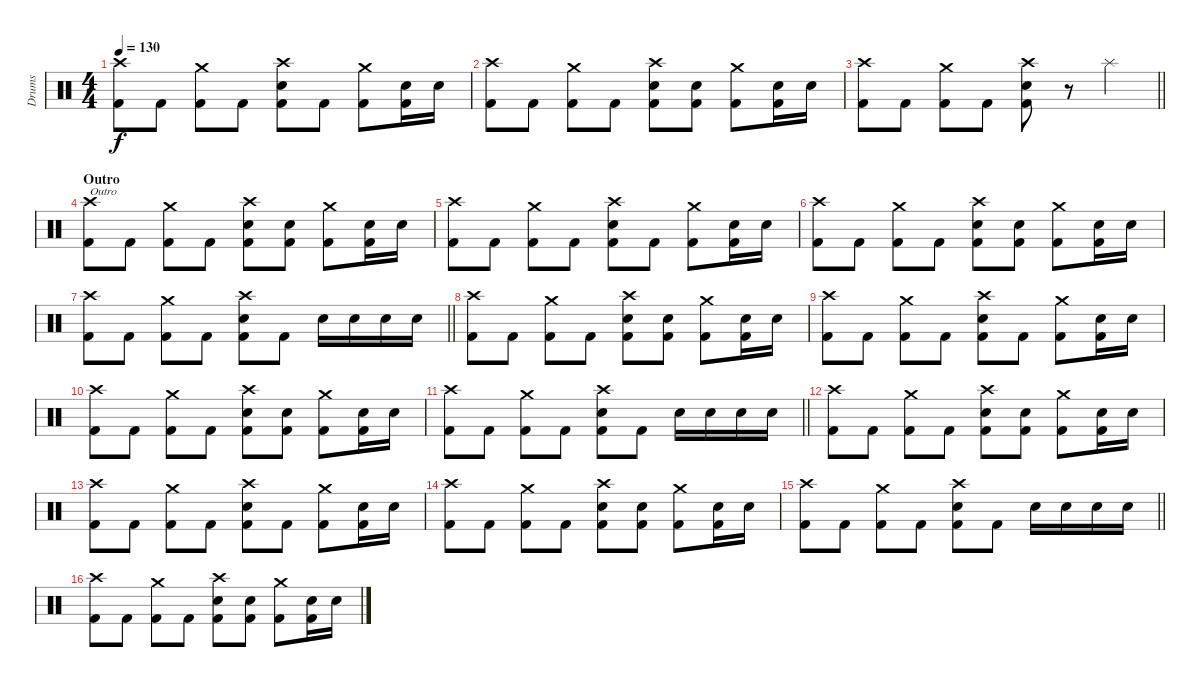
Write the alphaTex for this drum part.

\track ("Drums" "Drums") {instrument percussion}
\staff {score}
\articulation defaults
\ts (4 4)
\tempo 130
\clef neutral
\ks c
("Crash high (hit)" "Kick (hit) 2").8{dy f} "Kick (hit) 2".8 ("Crash medium (hit)" "Kick (hit) 2").8 "Kick (hit) 2".8 ("Crash high (hit)" "Electric Snare (hit)" "Kick (hit) 2").8 "Kick (hit) 2".8 ("Crash medium (hit)" "Kick (hit) 2").8 ("Electric Snare (hit)" "Kick (hit) 2").16 "Electric Snare (hit)".16 |
("Crash high (hit)" "Kick (hit) 2").8 "Kick (hit) 2".8 ("Crash medium (hit)" "Kick (hit) 2").8 "Kick (hit) 2".8 ("Crash high (hit)" "Electric Snare (hit)" "Kick (hit) 2").8 ("Electric Snare (hit)" "Kick (hit) 2").8 ("Crash medium (hit)" "Kick (hit) 2").8 ("Electric Snare (hit)" "Kick (hit) 2").16 "Electric Snare (hit)".16 |
\barLineRight lightlight
("Crash high (hit)" "Kick (hit) 2").8 "Kick (hit) 2".8 ("Crash medium (hit)" "Kick (hit) 2").8 "Kick (hit) 2".8 ("Crash high (hit)" "Electric Snare (hit)" "Kick (hit) 2").8 r.8 "Splash (hit)".4 |
\section ("" "Outro")
("Crash high (hit)" "Kick (hit) 2").8{txt "Outro"} "Kick (hit) 2".8 ("Crash medium (hit)" "Kick (hit) 2").8 "Kick (hit) 2".8 ("Crash high (hit)" "Electric Snare (hit)" "Kick (hit) 2").8 ("Electric Snare (hit)" "Kick (hit) 2").8 ("Crash medium (hit)" "Kick (hit) 2").8 ("Electric Snare (hit)" "Kick (hit) 2").16 "Electric Snare (hit)".16 |
("Crash high (hit)" "Kick (hit) 2").8 "Kick (hit) 2".8 ("Crash medium (hit)" "Kick (hit) 2").8 "Kick (hit) 2".8 ("Crash high (hit)" "Electric Snare (hit)" "Kick (hit) 2").8 "Kick (hit) 2".8 ("Crash medium (hit)" "Kick (hit) 2").8 ("Electric Snare (hit)" "Kick (hit) 2").16 "Electric Snare (hit)".16 |
("Crash high (hit)" "Kick (hit) 2").8 "Kick (hit) 2".8 ("Crash medium (hit)" "Kick (hit) 2").8 "Kick (hit) 2".8 ("Crash high (hit)" "Electric Snare (hit)" "Kick (hit) 2").8 ("Electric Snare (hit)" "Kick (hit) 2").8 ("Crash medium (hit)" "Kick (hit) 2").8 ("Electric Snare (hit)" "Kick (hit) 2").16 "Electric Snare (hit)".16 |
\barLineRight lightlight
("Crash high (hit)" "Kick (hit) 2").8 "Kick (hit) 2".8 ("Crash medium (hit)" "Kick (hit) 2").8 "Kick (hit) 2".8 ("Crash high (hit)" "Electric Snare (hit)" "Kick (hit) 2").8 "Kick (hit) 2".8 "Electric Snare (hit)".16 "Electric Snare (hit)".16 "Electric Snare (hit)".16 "Electric Snare (hit)".16 |
("Crash high (hit)" "Kick (hit) 2").8 "Kick (hit) 2".8 ("Crash medium (hit)" "Kick (hit) 2").8 "Kick (hit) 2".8 ("Crash high (hit)" "Electric Snare (hit)" "Kick (hit) 2").8 ("Electric Snare (hit)" "Kick (hit) 2").8 ("Crash medium (hit)" "Kick (hit) 2").8 ("Electric Snare (hit)" "Kick (hit) 2").16 "Electric Snare (hit)".16 |
("Crash high (hit)" "Kick (hit) 2").8 "Kick (hit) 2".8 ("Crash medium (hit)" "Kick (hit) 2").8 "Kick (hit) 2".8 ("Crash high (hit)" "Electric Snare (hit)" "Kick (hit) 2").8 "Kick (hit) 2".8 ("Crash medium (hit)" "Kick (hit) 2").8 ("Electric Snare (hit)" "Kick (hit) 2").16 "Electric Snare (hit)".16 |
("Crash high (hit)" "Kick (hit) 2").8 "Kick (hit) 2".8 ("Crash medium (hit)" "Kick (hit) 2").8 "Kick (hit) 2".8 ("Crash high (hit)" "Electric Snare (hit)" "Kick (hit) 2").8 ("Electric Snare (hit)" "Kick (hit) 2").8 ("Crash medium (hit)" "Kick (hit) 2").8 ("Electric Snare (hit)" "Kick (hit) 2").16 "Electric Snare (hit)".16 |
\barLineRight lightlight
("Crash high (hit)" "Kick (hit) 2").8 "Kick (hit) 2".8 ("Crash medium (hit)" "Kick (hit) 2").8 "Kick (hit) 2".8 ("Crash high (hit)" "Electric Snare (hit)" "Kick (hit) 2").8 "Kick (hit) 2".8 "Electric Snare (hit)".16 "Electric Snare (hit)".16 "Electric Snare (hit)".16 "Electric Snare (hit)".16 |
("Crash high (hit)" "Kick (hit) 2").8 "Kick (hit) 2".8 ("Crash medium (hit)" "Kick (hit) 2").8 "Kick (hit) 2".8 ("Crash high (hit)" "Electric Snare (hit)" "Kick (hit) 2").8 ("Electric Snare (hit)" "Kick (hit) 2").8 ("Crash medium (hit)" "Kick (hit) 2").8 ("Electric Snare (hit)" "Kick (hit) 2").16 "Electric Snare (hit)".16 |
("Crash high (hit)" "Kick (hit) 2").8 "Kick (hit) 2".8 ("Crash medium (hit)" "Kick (hit) 2").8 "Kick (hit) 2".8 ("Crash high (hit)" "Electric Snare (hit)" "Kick (hit) 2").8 "Kick (hit) 2".8 ("Crash medium (hit)" "Kick (hit) 2").8 ("Electric Snare (hit)" "Kick (hit) 2").16 "Electric Snare (hit)".16 |
("Crash high (hit)" "Kick (hit) 2").8 "Kick (hit) 2".8 ("Crash medium (hit)" "Kick (hit) 2").8 "Kick (hit) 2".8 ("Crash high (hit)" "Electric Snare (hit)" "Kick (hit) 2").8 ("Electric Snare (hit)" "Kick (hit) 2").8 ("Crash medium (hit)" "Kick (hit) 2").8 ("Electric Snare (hit)" "Kick (hit) 2").16 "Electric Snare (hit)".16 |
\barLineRight lightlight
("Crash high (hit)" "Kick (hit) 2").8 "Kick (hit) 2".8 ("Crash medium (hit)" "Kick (hit) 2").8 "Kick (hit) 2".8 ("Crash high (hit)" "Electric Snare (hit)" "Kick (hit) 2").8 "Kick (hit) 2".8 "Electric Snare (hit)".16 "Electric Snare (hit)".16 "Electric Snare (hit)".16 "Electric Snare (hit)".16 |
("Crash high (hit)" "Kick (hit) 2").8 "Kick (hit) 2".8 ("Crash medium (hit)" "Kick (hit) 2").8 "Kick (hit) 2".8 ("Crash high (hit)" "Electric Snare (hit)" "Kick (hit) 2").8 ("Electric Snare (hit)" "Kick (hit) 2").8 ("Crash medium (hit)" "Kick (hit) 2").8 ("Electric Snare (hit)" "Kick (hit) 2").16 "Electric Snare (hit)".16
